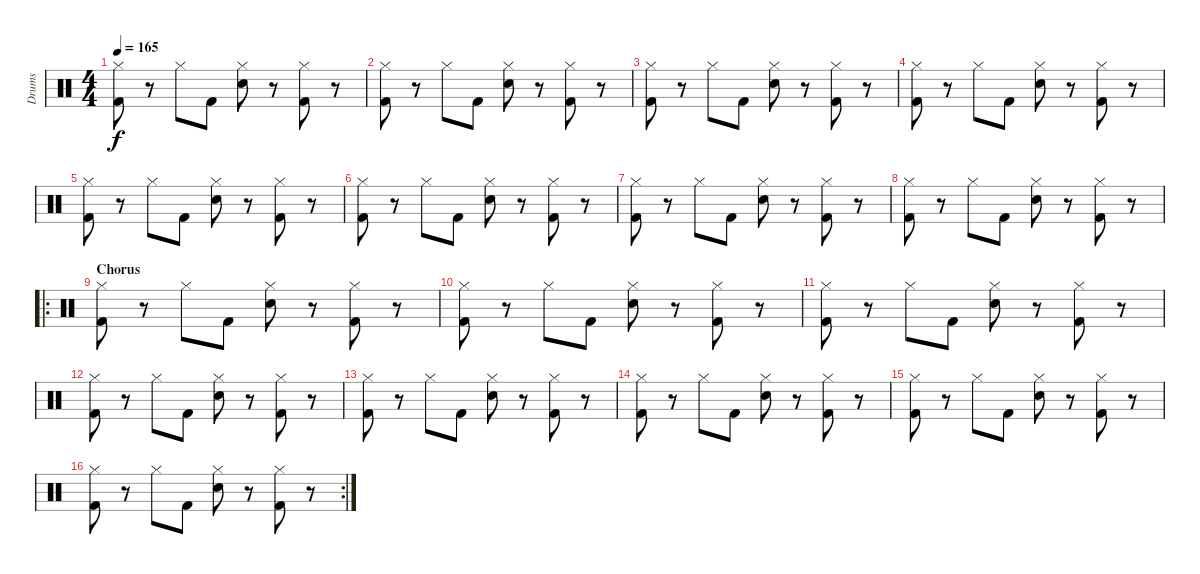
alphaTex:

\track ("Drums" "Drums") {instrument percussion}
\staff {score}
\articulation defaults
\ts (4 4)
\tempo 165
\clef neutral
\ks c
("Hi-Hat (closed)" "Kick (hit) 2").8{dy f} r.8 "Hi-Hat (closed)".8 "Kick (hit) 2".8 ("Hi-Hat (closed)" "Electric Snare (hit)").8 r.8 ("Hi-Hat (closed)" "Kick (hit) 2").8 r.8 |
("Hi-Hat (closed)" "Kick (hit) 2").8 r.8 "Hi-Hat (closed)".8 "Kick (hit) 2".8 ("Hi-Hat (closed)" "Electric Snare (hit)").8 r.8 ("Hi-Hat (closed)" "Kick (hit) 2").8 r.8 |
("Hi-Hat (closed)" "Kick (hit) 2").8 r.8 "Hi-Hat (closed)".8 "Kick (hit) 2".8 ("Hi-Hat (closed)" "Electric Snare (hit)").8 r.8 ("Hi-Hat (closed)" "Kick (hit) 2").8 r.8 |
("Hi-Hat (closed)" "Kick (hit) 2").8 r.8 "Hi-Hat (closed)".8 "Kick (hit) 2".8 ("Hi-Hat (closed)" "Electric Snare (hit)").8 r.8 ("Hi-Hat (closed)" "Kick (hit) 2").8 r.8 |
("Hi-Hat (closed)" "Kick (hit) 2").8 r.8 "Hi-Hat (closed)".8 "Kick (hit) 2".8 ("Hi-Hat (closed)" "Electric Snare (hit)").8 r.8 ("Hi-Hat (closed)" "Kick (hit) 2").8 r.8 |
("Hi-Hat (closed)" "Kick (hit) 2").8 r.8 "Hi-Hat (closed)".8 "Kick (hit) 2".8 ("Hi-Hat (closed)" "Electric Snare (hit)").8 r.8 ("Hi-Hat (closed)" "Kick (hit) 2").8 r.8 |
("Hi-Hat (closed)" "Kick (hit) 2").8 r.8 "Hi-Hat (closed)".8 "Kick (hit) 2".8 ("Hi-Hat (closed)" "Electric Snare (hit)").8 r.8 ("Hi-Hat (closed)" "Kick (hit) 2").8 r.8 |
("Hi-Hat (closed)" "Kick (hit) 2").8 r.8 "Hi-Hat (closed)".8 "Kick (hit) 2".8 ("Hi-Hat (closed)" "Electric Snare (hit)").8 r.8 ("Hi-Hat (closed)" "Kick (hit) 2").8 r.8 |
\ro
\section ("" "Chorus")
("Hi-Hat (closed)" "Kick (hit) 2").8 r.8 "Hi-Hat (closed)".8 "Kick (hit) 2".8 ("Hi-Hat (closed)" "Electric Snare (hit)").8 r.8 ("Hi-Hat (closed)" "Kick (hit) 2").8 r.8 |
("Hi-Hat (closed)" "Kick (hit) 2").8 r.8 "Hi-Hat (closed)".8 "Kick (hit) 2".8 ("Hi-Hat (closed)" "Electric Snare (hit)").8 r.8 ("Hi-Hat (closed)" "Kick (hit) 2").8 r.8 |
("Hi-Hat (closed)" "Kick (hit) 2").8 r.8 "Hi-Hat (closed)".8 "Kick (hit) 2".8 ("Hi-Hat (closed)" "Electric Snare (hit)").8 r.8 ("Hi-Hat (closed)" "Kick (hit) 2").8 r.8 |
("Hi-Hat (closed)" "Kick (hit) 2").8 r.8 "Hi-Hat (closed)".8 "Kick (hit) 2".8 ("Hi-Hat (closed)" "Electric Snare (hit)").8 r.8 ("Hi-Hat (closed)" "Kick (hit) 2").8 r.8 |
("Hi-Hat (closed)" "Kick (hit) 2").8 r.8 "Hi-Hat (closed)".8 "Kick (hit) 2".8 ("Hi-Hat (closed)" "Electric Snare (hit)").8 r.8 ("Hi-Hat (closed)" "Kick (hit) 2").8 r.8 |
("Hi-Hat (closed)" "Kick (hit) 2").8 r.8 "Hi-Hat (closed)".8 "Kick (hit) 2".8 ("Hi-Hat (closed)" "Electric Snare (hit)").8 r.8 ("Hi-Hat (closed)" "Kick (hit) 2").8 r.8 |
("Hi-Hat (closed)" "Kick (hit) 2").8 r.8 "Hi-Hat (closed)".8 "Kick (hit) 2".8 ("Hi-Hat (closed)" "Electric Snare (hit)").8 r.8 ("Hi-Hat (closed)" "Kick (hit) 2").8 r.8 |
\rc 2
("Hi-Hat (closed)" "Kick (hit) 2").8 r.8 "Hi-Hat (closed)".8 "Kick (hit) 2".8 ("Hi-Hat (closed)" "Electric Snare (hit)").8 r.8 ("Hi-Hat (closed)" "Kick (hit) 2").8 r.8
